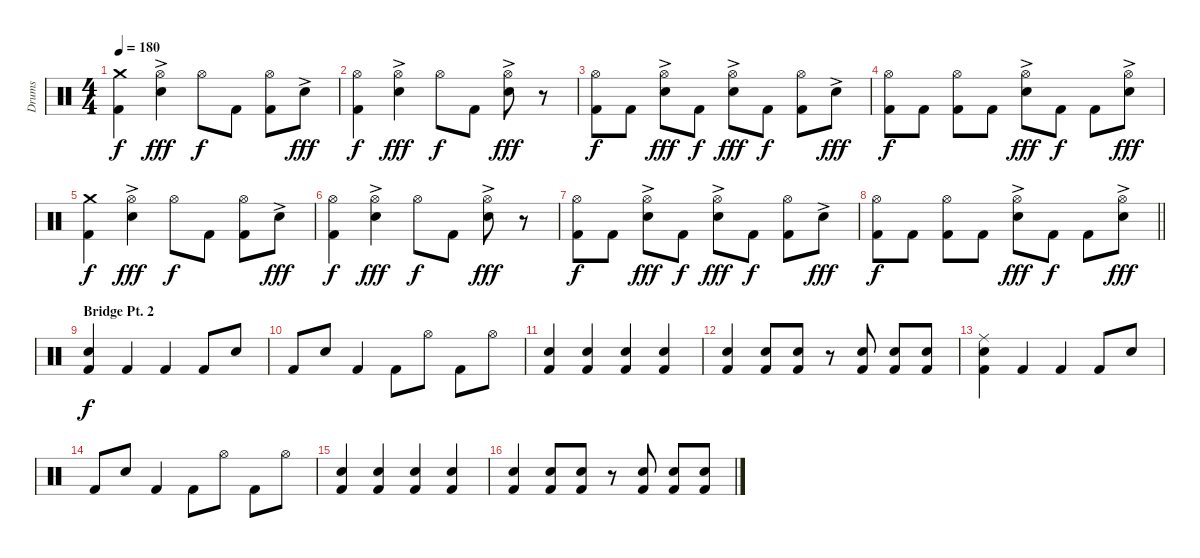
\track ("Drums" "Drums") {instrument percussion}
\staff {score}
\articulation defaults
\ts (4 4)
\tempo 180
\clef neutral
\ks c
("Crash medium (hit)" "Kick (hit) 2").4{dy f} ("Hi-Hat (open)" "Electric Snare (hit)"{ac}).4{dy fff} "Hi-Hat (open)".8{dy f} "Kick (hit) 2".8 ("Hi-Hat (open)" "Kick (hit) 2").8 "Electric Snare (hit)"{ac}.8{dy fff} |
("Hi-Hat (open)" "Kick (hit) 2").4{dy f} ("Hi-Hat (open)" "Electric Snare (hit)"{ac}).4{dy fff} "Hi-Hat (open)".8{dy f} "Kick (hit) 2".8 ("Hi-Hat (open)" "Electric Snare (hit)"{ac}).8{dy fff} r.8 |
("Hi-Hat (open)" "Kick (hit) 2").8{dy f} "Kick (hit) 2".8 ("Hi-Hat (open)" "Electric Snare (hit)"{ac}).8{dy fff} "Kick (hit) 2".8{dy f} ("Hi-Hat (open)" "Electric Snare (hit)"{ac}).8{dy fff} "Kick (hit) 2".8{dy f} ("Hi-Hat (open)" "Kick (hit) 2").8 "Electric Snare (hit)"{ac}.8{dy fff} |
("Hi-Hat (open)" "Kick (hit) 2").8{dy f} "Kick (hit) 2".8 ("Hi-Hat (open)" "Kick (hit) 2").8 "Kick (hit) 2".8 ("Hi-Hat (open)" "Electric Snare (hit)"{ac}).8{dy fff} "Kick (hit) 2".8{dy f} "Kick (hit) 2".8 ("Hi-Hat (open)" "Electric Snare (hit)"{ac}).8{dy fff} |
("Crash medium (hit)" "Kick (hit) 2").4{dy f} ("Hi-Hat (open)" "Electric Snare (hit)"{ac}).4{dy fff} "Hi-Hat (open)".8{dy f} "Kick (hit) 2".8 ("Hi-Hat (open)" "Kick (hit) 2").8 "Electric Snare (hit)"{ac}.8{dy fff} |
("Hi-Hat (open)" "Kick (hit) 2").4{dy f} ("Hi-Hat (open)" "Electric Snare (hit)"{ac}).4{dy fff} "Hi-Hat (open)".8{dy f} "Kick (hit) 2".8 ("Hi-Hat (open)" "Electric Snare (hit)"{ac}).8{dy fff} r.8 |
("Hi-Hat (open)" "Kick (hit) 2").8{dy f} "Kick (hit) 2".8 ("Hi-Hat (open)" "Electric Snare (hit)"{ac}).8{dy fff} "Kick (hit) 2".8{dy f} ("Hi-Hat (open)" "Electric Snare (hit)"{ac}).8{dy fff} "Kick (hit) 2".8{dy f} ("Hi-Hat (open)" "Kick (hit) 2").8 "Electric Snare (hit)"{ac}.8{dy fff} |
\barLineRight lightlight
("Hi-Hat (open)" "Kick (hit) 2").8{dy f} "Kick (hit) 2".8 ("Hi-Hat (open)" "Kick (hit) 2").8 "Kick (hit) 2".8 ("Hi-Hat (open)" "Electric Snare (hit)"{ac}).8{dy fff} "Kick (hit) 2".8{dy f} "Kick (hit) 2".8 ("Hi-Hat (open)" "Electric Snare (hit)"{ac}).8{dy fff} |
\section ("" "Bridge Pt. 2")
("Electric Snare (hit)" "Kick (hit) 2").4{dy f} "Kick (hit) 2".4 "Kick (hit) 2".4 "Kick (hit) 2".8 "Electric Snare (hit)".8 |
"Kick (hit) 2".8 "Electric Snare (hit)".8 "Kick (hit) 2".4 "Kick (hit) 2".8 "Hi-Hat (open)".8 "Kick (hit) 2".8 "Hi-Hat (open)".8 |
("Electric Snare (hit)" "Kick (hit) 2").4 ("Electric Snare (hit)" "Kick (hit) 2").4 ("Electric Snare (hit)" "Kick (hit) 2").4 ("Electric Snare (hit)" "Kick (hit) 2").4 |
("Electric Snare (hit)" "Kick (hit) 2").4 ("Electric Snare (hit)" "Kick (hit) 2").8 ("Electric Snare (hit)" "Kick (hit) 2").8 r.8 ("Electric Snare (hit)" "Kick (hit) 2").8 ("Electric Snare (hit)" "Kick (hit) 2").8 ("Electric Snare (hit)" "Kick (hit) 2").8 |
("Ride (middle)" "Electric Snare (hit)" "Kick (hit) 2").4 "Kick (hit) 2".4 "Kick (hit) 2".4 "Kick (hit) 2".8 "Electric Snare (hit)".8 |
"Kick (hit) 2".8 "Electric Snare (hit)".8 "Kick (hit) 2".4 "Kick (hit) 2".8 "Hi-Hat (open)".8 "Kick (hit) 2".8 "Hi-Hat (open)".8 |
("Electric Snare (hit)" "Kick (hit) 2").4 ("Electric Snare (hit)" "Kick (hit) 2").4 ("Electric Snare (hit)" "Kick (hit) 2").4 ("Electric Snare (hit)" "Kick (hit) 2").4 |
("Electric Snare (hit)" "Kick (hit) 2").4 ("Electric Snare (hit)" "Kick (hit) 2").8 ("Electric Snare (hit)" "Kick (hit) 2").8 r.8 ("Electric Snare (hit)" "Kick (hit) 2").8 ("Electric Snare (hit)" "Kick (hit) 2").8 ("Electric Snare (hit)" "Kick (hit) 2").8
